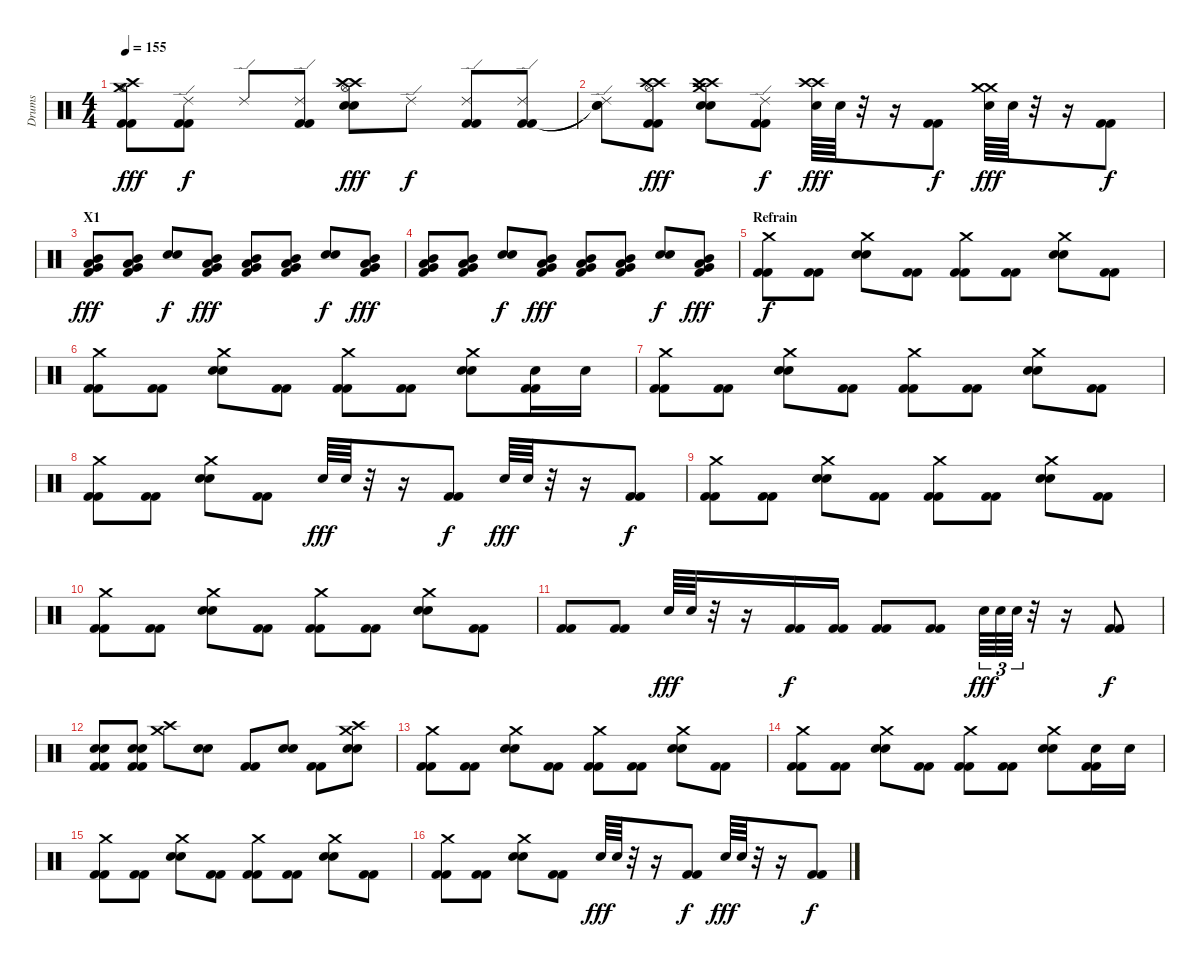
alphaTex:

\track ("Drums" "Drums") {instrument percussion}
\staff {score}
\articulation defaults
\ts (4 4)
\tempo 155
\clef neutral
\ks c
("Crash high (hit)" "Crash medium (hit)" "Hi-Hat (open)" "Kick (hit) 2" "Kick (hit) 2").8{dy fff} ("Ride (edge) 2" "Kick (hit) 2" "Kick (hit) 2").8{dy f} "Ride (edge) 2".8 ("Ride (edge) 2" "Kick (hit) 2" "Kick (hit) 2").8 ("Crash high (hit)" "Crash high (hit)" "Hi-Hat (open)" "Snare (hit) 2" "Electric Snare (hit)").8{dy fff} "Ride (edge) 2".8{dy f} ("Ride (edge) 2" "Kick (hit) 2" "Kick (hit) 2").8 ("Ride (edge) 2" "Kick (hit) 2" "Kick (hit) 2").8 |
("Ride (edge) 2" "Snare (hit)"{t} "Snare (hit)"{t}).8 ("Crash high (hit)" "Crash high (hit)" "Hi-Hat (open)" "Kick (hit) 2" "Kick (hit) 2").8{dy fff} ("Crash high (hit)" "Crash high (hit)" "Crash medium (hit)" "Electric Snare (hit)" "Snare (hit) 2").8 ("Ride (edge) 2" "Kick (hit) 2" "Kick (hit) 2").8{dy f} ("Crash high (hit)" "Crash high (hit)" "Snare (hit) 2").64{dy fff} "Electric Snare (hit)".64 r.32 r.16 ("Kick (hit) 2" "Kick (hit) 2").8{dy f} ("Crash medium (hit)" "Crash medium (hit)" "Snare (hit) 2").64{dy fff} "Electric Snare (hit)".64 r.32 r.16 ("Kick (hit) 2" "Kick (hit) 2").8{dy f} |
\section ("" "X1")
("Mid Tom (hit)" "Low Tom (hit)" "Very Low Tom (hit)" "Kick (hit) 2").8{dy fff volume 6} ("Mid Tom (hit)" "Low Tom (hit)" "Very Low Tom (hit)" "Kick (hit) 2").8{volume 16} ("Snare (hit) 2" "Electric Snare (hit)").8{dy f} ("Mid Tom (hit)" "Low Tom (hit)" "Very Low Tom (hit)" "Kick (hit) 2").8{dy fff} ("Mid Tom (hit)" "Low Tom (hit)" "Very Low Tom (hit)" "Kick (hit) 2").8 ("Mid Tom (hit)" "Low Tom (hit)" "Very Low Tom (hit)" "Kick (hit) 2").8 ("Snare (hit) 2" "Electric Snare (hit)").8{dy f} ("Mid Tom (hit)" "Low Tom (hit)" "Very Low Tom (hit)" "Kick (hit) 2").8{dy fff} |
("Mid Tom (hit)" "Low Tom (hit)" "Very Low Tom (hit)" "Kick (hit) 2").8 ("Mid Tom (hit)" "Low Tom (hit)" "Very Low Tom (hit)" "Kick (hit) 2").8 ("Snare (hit) 2" "Electric Snare (hit)").8{dy f} ("Mid Tom (hit)" "Low Tom (hit)" "Very Low Tom (hit)" "Kick (hit) 2").8{dy fff} ("Mid Tom (hit)" "Low Tom (hit)" "Very Low Tom (hit)" "Kick (hit) 2").8 ("Mid Tom (hit)" "Low Tom (hit)" "Very Low Tom (hit)" "Kick (hit) 2").8 ("Snare (hit) 2" "Electric Snare (hit)").8{dy f} ("Mid Tom (hit)" "Low Tom (hit)" "Very Low Tom (hit)" "Kick (hit) 2").8{dy fff} |
\section ("" "Refrain")
("Crash medium (hit)" "Kick (hit) 2" "Kick (hit) 2").8{dy f volume 11} ("Kick (hit) 2" "Kick (hit) 2").8 ("Crash medium (hit)" "Snare (hit) 2" "Electric Snare (hit)").8 ("Kick (hit) 2" "Kick (hit) 2").8 ("Crash medium (hit)" "Kick (hit) 2" "Kick (hit) 2").8 ("Kick (hit) 2" "Kick (hit) 2").8 ("Crash medium (hit)" "Snare (hit) 2" "Electric Snare (hit)").8 ("Kick (hit) 2" "Kick (hit) 2").8 |
("Crash medium (hit)" "Kick (hit) 2" "Kick (hit) 2").8 ("Kick (hit) 2" "Kick (hit) 2").8 ("Crash medium (hit)" "Snare (hit) 2" "Electric Snare (hit)").8 ("Kick (hit) 2" "Kick (hit) 2").8 ("Crash medium (hit)" "Kick (hit) 2" "Kick (hit) 2").8 ("Kick (hit) 2" "Kick (hit) 2").8 ("Crash medium (hit)" "Snare (hit) 2" "Electric Snare (hit)").8 ("Electric Snare (hit)" "Kick (hit) 2" "Kick (hit) 2").16 "Electric Snare (hit)".16 |
("Crash medium (hit)" "Kick (hit) 2" "Kick (hit) 2").8 ("Kick (hit) 2" "Kick (hit) 2").8 ("Crash medium (hit)" "Snare (hit) 2" "Electric Snare (hit)").8 ("Kick (hit) 2" "Kick (hit) 2").8 ("Crash medium (hit)" "Kick (hit) 2" "Kick (hit) 2").8 ("Kick (hit) 2" "Kick (hit) 2").8 ("Crash medium (hit)" "Snare (hit) 2" "Electric Snare (hit)").8 ("Kick (hit) 2" "Kick (hit) 2").8 |
("Crash medium (hit)" "Kick (hit) 2" "Kick (hit) 2").8 ("Kick (hit) 2" "Kick (hit) 2").8 ("Crash medium (hit)" "Snare (hit) 2" "Electric Snare (hit)").8 ("Kick (hit) 2" "Kick (hit) 2").8 "Snare (hit) 2".64{dy fff} "Electric Snare (hit)".64 r.32 r.16 ("Kick (hit) 2" "Kick (hit) 2").8{dy f} "Snare (hit) 2".64{dy fff} "Electric Snare (hit)".64 r.32 r.16 ("Kick (hit) 2" "Kick (hit) 2").8{dy f} |
("Crash medium (hit)" "Kick (hit) 2" "Kick (hit) 2").8 ("Kick (hit) 2" "Kick (hit) 2").8 ("Crash medium (hit)" "Snare (hit) 2" "Electric Snare (hit)").8 ("Kick (hit) 2" "Kick (hit) 2").8 ("Crash medium (hit)" "Kick (hit) 2" "Kick (hit) 2").8 ("Kick (hit) 2" "Kick (hit) 2").8 ("Crash medium (hit)" "Snare (hit) 2" "Electric Snare (hit)").8 ("Kick (hit) 2" "Kick (hit) 2").8 |
("Crash medium (hit)" "Kick (hit) 2" "Kick (hit) 2").8 ("Kick (hit) 2" "Kick (hit) 2").8 ("Crash medium (hit)" "Snare (hit) 2" "Electric Snare (hit)").8 ("Kick (hit) 2" "Kick (hit) 2").8 ("Crash medium (hit)" "Kick (hit) 2" "Kick (hit) 2").8 ("Kick (hit) 2" "Kick (hit) 2").8 ("Crash medium (hit)" "Snare (hit) 2" "Electric Snare (hit)").8 ("Kick (hit) 2" "Kick (hit) 2").8 |
("Kick (hit) 2" "Kick (hit) 2").8 ("Kick (hit) 2" "Kick (hit) 2").8 "Snare (hit) 2".64{dy fff} "Electric Snare (hit)".64 r.32 r.16 ("Kick (hit) 2" "Kick (hit) 2").16{dy f} ("Kick (hit) 2" "Kick (hit) 2").16 ("Kick (hit) 2" "Kick (hit) 2").8 ("Kick (hit) 2" "Kick (hit) 2").8 "Snare (hit) 2".64{tu (3 2) dy fff} "Electric Snare (hit)".64{tu (3 2)} "Snare (hit) 2".64{tu (3 2)} r.32 r.16 ("Kick (hit) 2" "Kick (hit) 2").8{dy f} |
("Snare (hit) 2" "Electric Snare (hit)" "Kick (hit) 2" "Kick (hit) 2").8 ("Snare (hit) 2" "Electric Snare (hit)" "Kick (hit) 2" "Kick (hit) 2").8 ("Crash medium (hit)" "Crash high (hit)").8 ("Snare (hit) 2" "Electric Snare (hit)").8 ("Kick (hit) 2" "Kick (hit) 2").8 ("Snare (hit) 2" "Electric Snare (hit)").8 ("Kick (hit) 2" "Kick (hit) 2").8 ("Crash medium (hit)" "Crash high (hit)" "Snare (hit) 2" "Electric Snare (hit)").8 |
("Crash medium (hit)" "Kick (hit) 2" "Kick (hit) 2").8 ("Kick (hit) 2" "Kick (hit) 2").8 ("Crash medium (hit)" "Snare (hit) 2" "Electric Snare (hit)").8 ("Kick (hit) 2" "Kick (hit) 2").8 ("Crash medium (hit)" "Kick (hit) 2" "Kick (hit) 2").8 ("Kick (hit) 2" "Kick (hit) 2").8 ("Crash medium (hit)" "Snare (hit) 2" "Electric Snare (hit)").8 ("Kick (hit) 2" "Kick (hit) 2").8 |
("Crash medium (hit)" "Kick (hit) 2" "Kick (hit) 2").8 ("Kick (hit) 2" "Kick (hit) 2").8 ("Crash medium (hit)" "Snare (hit) 2" "Electric Snare (hit)").8 ("Kick (hit) 2" "Kick (hit) 2").8 ("Crash medium (hit)" "Kick (hit) 2" "Kick (hit) 2").8 ("Kick (hit) 2" "Kick (hit) 2").8 ("Crash medium (hit)" "Snare (hit) 2" "Electric Snare (hit)").8 ("Electric Snare (hit)" "Kick (hit) 2" "Kick (hit) 2").16 "Electric Snare (hit)".16 |
("Crash medium (hit)" "Kick (hit) 2" "Kick (hit) 2").8 ("Kick (hit) 2" "Kick (hit) 2").8 ("Crash medium (hit)" "Snare (hit) 2" "Electric Snare (hit)").8 ("Kick (hit) 2" "Kick (hit) 2").8 ("Crash medium (hit)" "Kick (hit) 2" "Kick (hit) 2").8 ("Kick (hit) 2" "Kick (hit) 2").8 ("Crash medium (hit)" "Snare (hit) 2" "Electric Snare (hit)").8 ("Kick (hit) 2" "Kick (hit) 2").8 |
("Crash medium (hit)" "Kick (hit) 2" "Kick (hit) 2").8 ("Kick (hit) 2" "Kick (hit) 2").8 ("Crash medium (hit)" "Snare (hit) 2" "Electric Snare (hit)").8 ("Kick (hit) 2" "Kick (hit) 2").8 "Snare (hit) 2".64{dy fff} "Electric Snare (hit)".64 r.32 r.16 ("Kick (hit) 2" "Kick (hit) 2").8{dy f} "Snare (hit) 2".64{dy fff} "Electric Snare (hit)".64 r.32 r.16 ("Kick (hit) 2" "Kick (hit) 2").8{dy f}
